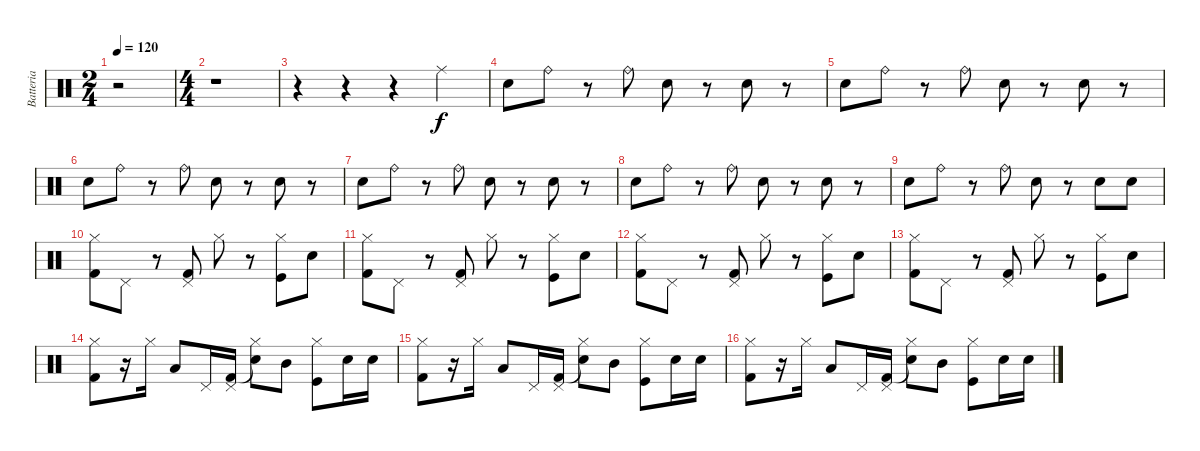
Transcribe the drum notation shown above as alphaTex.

\track ("Batteria" "Batteria") {instrument percussion}
\staff {score}
\articulation defaults
\ts (2 4)
\tempo 120
\clef neutral
\ks c
r.2{dy f} |
\ts (4 4)
r.1 |
r.4{volume 8} r.4 r.4 "Ride (middle)".4 |
"Metronome (bell)".8 "Ride (bell)".8 r.8 "Ride (bell)".8 "Metronome (bell)".8 r.8 "Metronome (bell)".8 r.8 |
"Metronome (bell)".8 "Ride (bell)".8 r.8 "Ride (bell)".8 "Metronome (bell)".8 r.8 "Metronome (bell)".8 r.8 |
"Metronome (bell)".8{volume 11} "Ride (bell)".8 r.8 "Ride (bell)".8 "Metronome (bell)".8 r.8 "Metronome (bell)".8 r.8 |
"Metronome (bell)".8 "Ride (bell)".8 r.8 "Ride (bell)".8 "Metronome (bell)".8 r.8 "Metronome (bell)".8 r.8 |
"Metronome (bell)".8 "Ride (bell)".8 r.8 "Ride (bell)".8 "Metronome (bell)".8 r.8 "Metronome (bell)".8 r.8 |
"Metronome (bell)".8 "Ride (bell)".8 r.8 "Ride (bell)".8 "Metronome (bell)".8 r.8 "Metronome (bell)".8 "Snare (hit) 2".8{volume 13} |
("Hi-Hat (closed)" "Kick (hit) 2").8 "Pedal Hi-Hat (hit)".8 r.8 ("Pedal Hi-Hat (hit)" "Kick (hit) 2").8 "Hi-Hat (closed)".8 r.8 ("Hi-Hat (closed)" "Kick (hit)").8 "Snare (hit) 2".8 |
("Hi-Hat (closed)" "Kick (hit) 2").8 "Pedal Hi-Hat (hit)".8 r.8 ("Pedal Hi-Hat (hit)" "Kick (hit) 2").8 "Hi-Hat (closed)".8 r.8 ("Hi-Hat (closed)" "Kick (hit)").8 "Snare (hit) 2".8 |
("Hi-Hat (closed)" "Kick (hit) 2").8 "Pedal Hi-Hat (hit)".8 r.8 ("Pedal Hi-Hat (hit)" "Kick (hit) 2").8 "Hi-Hat (closed)".8 r.8 ("Hi-Hat (closed)" "Kick (hit)").8 "Snare (hit) 2".8 |
("Hi-Hat (closed)" "Kick (hit) 2").8 "Pedal Hi-Hat (hit)".8 r.8 ("Pedal Hi-Hat (hit)" "Kick (hit) 2").8 "Hi-Hat (closed)".8 r.8 ("Hi-Hat (closed)" "Kick (hit)").8 "Snare (hit) 2".8 |
("Hi-Hat (closed)" "Kick (hit) 2").8 r.16 "Hi-Hat (closed)".16 "Low Tom (hit)".8 "Pedal Hi-Hat (hit)".16 ("Pedal Hi-Hat (hit)" "Kick (hit) 2").16 ("Hi-Hat (closed)" "Snare (hit)"{t}).8 "Mid Tom (hit)".8 ("Hi-Hat (closed)" "Kick (hit)").8 "Snare (hit) 2".16 "Snare (hit) 2".16 |
("Hi-Hat (closed)" "Kick (hit) 2").8 r.16 "Hi-Hat (closed)".16 "Low Tom (hit)".8 "Pedal Hi-Hat (hit)".16 ("Pedal Hi-Hat (hit)" "Kick (hit) 2").16 ("Hi-Hat (closed)" "Snare (hit)"{t}).8 "Mid Tom (hit)".8 ("Hi-Hat (closed)" "Kick (hit)").8 "Snare (hit) 2".16 "Snare (hit) 2".16 |
("Hi-Hat (closed)" "Kick (hit) 2").8 r.16 "Hi-Hat (closed)".16 "Low Tom (hit)".8 "Pedal Hi-Hat (hit)".16 ("Pedal Hi-Hat (hit)" "Kick (hit) 2").16 ("Hi-Hat (closed)" "Snare (hit)"{t}).8 "Mid Tom (hit)".8 ("Hi-Hat (closed)" "Kick (hit)").8 "Snare (hit) 2".16 "Snare (hit) 2".16
